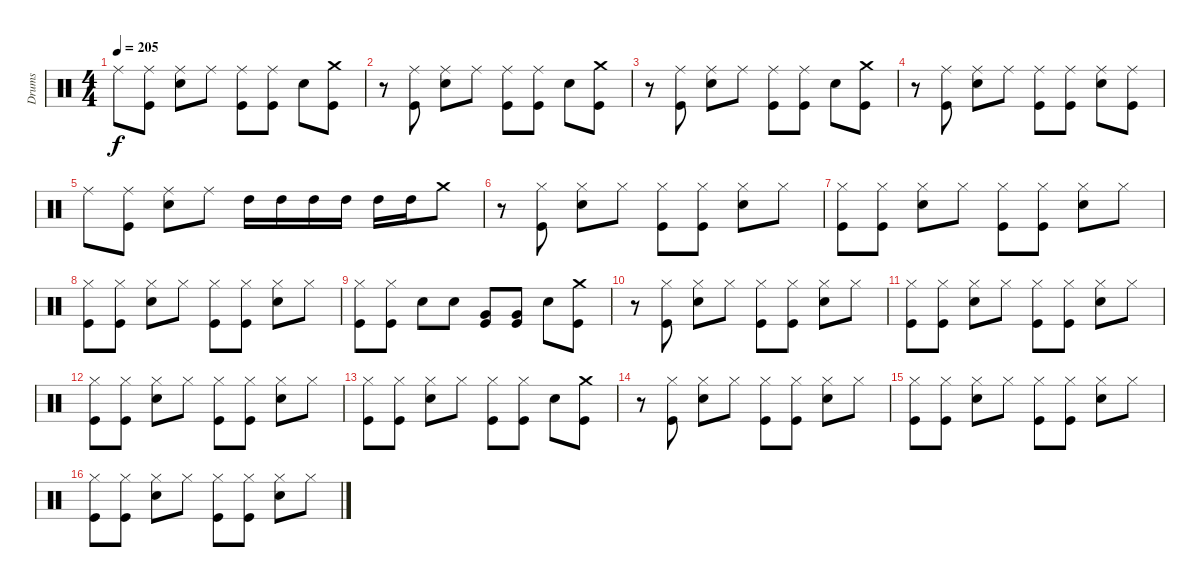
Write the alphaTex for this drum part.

\track ("Drums" "Drums") {instrument percussion}
\staff {score}
\articulation defaults
\ts (4 4)
\tempo 205
\clef neutral
\ks c "Ride (middle)".8{dy f}
("Ride (middle)" "Kick (hit)").8 ("Ride (middle)" "Electric Snare (hit)").8 "Ride (middle)".8 ("Ride (middle)" "Kick (hit)").8 ("Ride (middle)" "Kick (hit)").8 "Electric Snare (hit)".8 ("Crash medium (hit)" "Kick (hit)").8 |
r.8 ("Ride (middle)" "Kick (hit)").8 ("Ride (middle)" "Electric Snare (hit)").8 "Ride (middle)".8 ("Ride (middle)" "Kick (hit)").8 ("Ride (middle)" "Kick (hit)").8 "Electric Snare (hit)".8 ("Crash medium (hit)" "Kick (hit)").8 |
r.8 ("Ride (middle)" "Kick (hit)").8 ("Ride (middle)" "Electric Snare (hit)").8 "Ride (middle)".8 ("Ride (middle)" "Kick (hit)").8 ("Ride (middle)" "Kick (hit)").8 "Electric Snare (hit)".8 ("Crash medium (hit)" "Kick (hit)").8 |
r.8 ("Ride (middle)" "Kick (hit)").8 ("Ride (middle)" "Electric Snare (hit)").8 "Ride (middle)".8 ("Ride (middle)" "Kick (hit)").8 ("Ride (middle)" "Kick (hit)").8 ("Ride (middle)" "Electric Snare (hit)").8 ("Ride (middle)" "Kick (hit)").8 |
"Ride (middle)".8 ("Ride (middle)" "Kick (hit)").8 ("Ride (middle)" "Electric Snare (hit)").8 "Ride (middle)".8 "High Tom (hit)".16 "High Tom (hit)".16 "High Tom (hit)".16 "High Tom (hit)".16 "High Tom (hit)".16 "High Tom (hit)".16 "Crash medium (hit)".8 |
r.8 ("Hi-Hat (closed)" "Kick (hit)").8 ("Hi-Hat (closed)" "Electric Snare (hit)").8 "Hi-Hat (closed)".8 ("Hi-Hat (closed)" "Kick (hit)").8 ("Hi-Hat (closed)" "Kick (hit)").8 ("Hi-Hat (closed)" "Electric Snare (hit)").8 "Hi-Hat (closed)".8 |
("Hi-Hat (closed)" "Kick (hit)").8 ("Hi-Hat (closed)" "Kick (hit)").8 ("Hi-Hat (closed)" "Electric Snare (hit)").8 "Hi-Hat (closed)".8 ("Hi-Hat (closed)" "Kick (hit)").8 ("Hi-Hat (closed)" "Kick (hit)").8 ("Hi-Hat (closed)" "Electric Snare (hit)").8 "Hi-Hat (closed)".8 |
("Hi-Hat (closed)" "Kick (hit)").8 ("Hi-Hat (closed)" "Kick (hit)").8 ("Hi-Hat (closed)" "Electric Snare (hit)").8 "Hi-Hat (closed)".8 ("Hi-Hat (closed)" "Kick (hit)").8 ("Hi-Hat (closed)" "Kick (hit)").8 ("Hi-Hat (closed)" "Electric Snare (hit)").8 "Hi-Hat (closed)".8 |
("Hi-Hat (closed)" "Kick (hit)").8 ("Hi-Hat (closed)" "Kick (hit)").8 "Electric Snare (hit)".8 "Electric Snare (hit)".8 ("Very Low Tom (hit)" "Kick (hit)").8 ("Very Low Tom (hit)" "Kick (hit)").8 "Electric Snare (hit)".8 ("Crash medium (hit)" "Kick (hit)").8 |
r.8 ("Hi-Hat (closed)" "Kick (hit)").8 ("Hi-Hat (closed)" "Electric Snare (hit)").8 "Hi-Hat (closed)".8 ("Hi-Hat (closed)" "Kick (hit)").8 ("Hi-Hat (closed)" "Kick (hit)").8 ("Hi-Hat (closed)" "Electric Snare (hit)").8 "Hi-Hat (closed)".8 |
("Hi-Hat (closed)" "Kick (hit)").8 ("Hi-Hat (closed)" "Kick (hit)").8 ("Hi-Hat (closed)" "Electric Snare (hit)").8 "Hi-Hat (closed)".8 ("Hi-Hat (closed)" "Kick (hit)").8 ("Hi-Hat (closed)" "Kick (hit)").8 ("Hi-Hat (closed)" "Electric Snare (hit)").8 "Hi-Hat (closed)".8 |
("Hi-Hat (closed)" "Kick (hit)").8 ("Hi-Hat (closed)" "Kick (hit)").8 ("Hi-Hat (closed)" "Electric Snare (hit)").8 "Hi-Hat (closed)".8 ("Hi-Hat (closed)" "Kick (hit)").8 ("Hi-Hat (closed)" "Kick (hit)").8 ("Hi-Hat (closed)" "Electric Snare (hit)").8 "Hi-Hat (closed)".8 |
("Hi-Hat (closed)" "Kick (hit)").8 ("Hi-Hat (closed)" "Kick (hit)").8 ("Hi-Hat (closed)" "Electric Snare (hit)").8 "Hi-Hat (closed)".8 ("Hi-Hat (closed)" "Kick (hit)").8 ("Hi-Hat (closed)" "Kick (hit)").8 "Electric Snare (hit)".8 ("Crash medium (hit)" "Kick (hit)").8 |
r.8 ("Hi-Hat (closed)" "Kick (hit)").8 ("Hi-Hat (closed)" "Electric Snare (hit)").8 "Hi-Hat (closed)".8 ("Hi-Hat (closed)" "Kick (hit)").8 ("Hi-Hat (closed)" "Kick (hit)").8 ("Hi-Hat (closed)" "Electric Snare (hit)").8 "Hi-Hat (closed)".8 |
("Hi-Hat (closed)" "Kick (hit)").8 ("Hi-Hat (closed)" "Kick (hit)").8 ("Hi-Hat (closed)" "Electric Snare (hit)").8 "Hi-Hat (closed)".8 ("Hi-Hat (closed)" "Kick (hit)").8 ("Hi-Hat (closed)" "Kick (hit)").8 ("Hi-Hat (closed)" "Electric Snare (hit)").8 "Hi-Hat (closed)".8 |
("Hi-Hat (closed)" "Kick (hit)").8 ("Hi-Hat (closed)" "Kick (hit)").8 ("Hi-Hat (closed)" "Electric Snare (hit)").8 "Hi-Hat (closed)".8 ("Hi-Hat (closed)" "Kick (hit)").8 ("Hi-Hat (closed)" "Kick (hit)").8 ("Hi-Hat (closed)" "Electric Snare (hit)").8 "Hi-Hat (closed)".8
